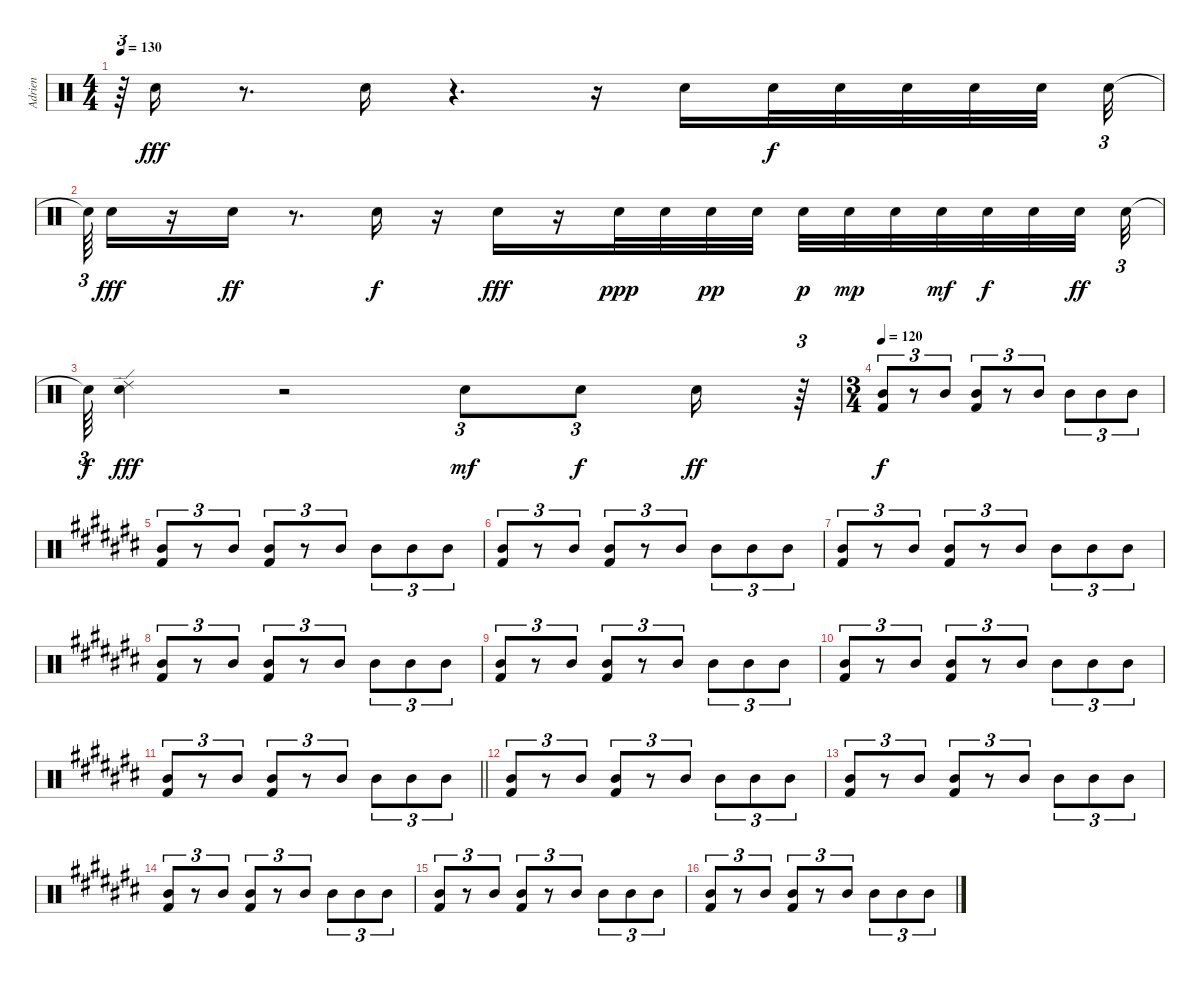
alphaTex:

\track ("Adrien" "Adrien") {instrument percussion}
\staff {score}
\articulation defaults
\ts (4 4)
\tempo 130
\clef neutral
\ks c
r.64{tu (3 2) dy ff} "Snare (hit) 2".16{dy fff} r.8{d} "Snare (hit) 2".16 r.4{d} r.16 "Snare (hit) 2".16 "Snare (hit) 2".32{dy f} "Snare (hit) 2".32 "Snare (hit) 2".32 "Snare (hit) 2".32 "Snare (hit) 2".32{beam splitsecondary} "Snare (hit) 2".32{tu (3 2)} |
"Snare (hit)"{t}.64{tu (3 2)} "Snare (hit) 2".16{dy fff} r.16 "Snare (hit) 2".16{dy ff} r.8{d} "Snare (hit) 2".16{dy f} r.16 "Snare (hit) 2".16{dy fff} r.16 "Snare (hit) 2".32{dy ppp} "Snare (hit) 2".32 "Snare (hit) 2".32{dy pp} "Snare (hit) 2".32 "Snare (hit) 2".32{dy p} "Snare (hit) 2".32{dy mp} "Snare (hit) 2".32 "Snare (hit) 2".32{dy mf} "Snare (hit) 2".32{dy f} "Snare (hit) 2".32 "Snare (hit) 2".32{dy ff beam splitsecondary} "Snare (hit) 2".32{tu (3 2)} |
"Snare (hit)"{t}.64{tu (3 2) dy f} ("Snare (hit) 2" "Ride (edge) 2").4{dy fff} r.2 "Snare (hit) 2".8{tu (3 2) dy mf} "Snare (hit) 2".8{tu (3 2) dy f} "Snare (hit) 2".16{dy ff} r.64{tu (3 2)} |
\ts (3 4)
\tempo 120
("Mid Tom (hit)" "Kick (hit) 2").8{tu (3 2) dy f} r.8{tu (3 2)} "Mid Tom (hit)".8{tu (3 2)} ("Mid Tom (hit)" "Kick (hit) 2").8{tu (3 2)} r.8{tu (3 2)} "Mid Tom (hit)".8{tu (3 2)} "Mid Tom (hit)".8{tu (3 2)} "Mid Tom (hit)".8{tu (3 2)} "Mid Tom (hit)".8{tu (3 2)} |
\ks c#
("Mid Tom (hit)" "Kick (hit) 2").8{tu (3 2)} r.8{tu (3 2)} "Mid Tom (hit)".8{tu (3 2)} ("Mid Tom (hit)" "Kick (hit) 2").8{tu (3 2)} r.8{tu (3 2)} "Mid Tom (hit)".8{tu (3 2)} "Mid Tom (hit)".8{tu (3 2)} "Mid Tom (hit)".8{tu (3 2)} "Mid Tom (hit)".8{tu (3 2)} |
("Mid Tom (hit)" "Kick (hit) 2").8{tu (3 2)} r.8{tu (3 2)} "Mid Tom (hit)".8{tu (3 2)} ("Mid Tom (hit)" "Kick (hit) 2").8{tu (3 2)} r.8{tu (3 2)} "Mid Tom (hit)".8{tu (3 2)} "Mid Tom (hit)".8{tu (3 2)} "Mid Tom (hit)".8{tu (3 2)} "Mid Tom (hit)".8{tu (3 2)} |
("Mid Tom (hit)" "Kick (hit) 2").8{tu (3 2)} r.8{tu (3 2)} "Mid Tom (hit)".8{tu (3 2)} ("Mid Tom (hit)" "Kick (hit) 2").8{tu (3 2)} r.8{tu (3 2)} "Mid Tom (hit)".8{tu (3 2)} "Mid Tom (hit)".8{tu (3 2)} "Mid Tom (hit)".8{tu (3 2)} "Mid Tom (hit)".8{tu (3 2)} |
("Mid Tom (hit)" "Kick (hit) 2").8{tu (3 2)} r.8{tu (3 2)} "Mid Tom (hit)".8{tu (3 2)} ("Mid Tom (hit)" "Kick (hit) 2").8{tu (3 2)} r.8{tu (3 2)} "Mid Tom (hit)".8{tu (3 2)} "Mid Tom (hit)".8{tu (3 2)} "Mid Tom (hit)".8{tu (3 2)} "Mid Tom (hit)".8{tu (3 2)} |
("Mid Tom (hit)" "Kick (hit) 2").8{tu (3 2)} r.8{tu (3 2)} "Mid Tom (hit)".8{tu (3 2)} ("Mid Tom (hit)" "Kick (hit) 2").8{tu (3 2)} r.8{tu (3 2)} "Mid Tom (hit)".8{tu (3 2)} "Mid Tom (hit)".8{tu (3 2)} "Mid Tom (hit)".8{tu (3 2)} "Mid Tom (hit)".8{tu (3 2)} |
("Mid Tom (hit)" "Kick (hit) 2").8{tu (3 2)} r.8{tu (3 2)} "Mid Tom (hit)".8{tu (3 2)} ("Mid Tom (hit)" "Kick (hit) 2").8{tu (3 2)} r.8{tu (3 2)} "Mid Tom (hit)".8{tu (3 2)} "Mid Tom (hit)".8{tu (3 2)} "Mid Tom (hit)".8{tu (3 2)} "Mid Tom (hit)".8{tu (3 2)} |
\barLineRight lightlight
("Mid Tom (hit)" "Kick (hit) 2").8{tu (3 2)} r.8{tu (3 2)} "Mid Tom (hit)".8{tu (3 2)} ("Mid Tom (hit)" "Kick (hit) 2").8{tu (3 2)} r.8{tu (3 2)} "Mid Tom (hit)".8{tu (3 2)} "Mid Tom (hit)".8{tu (3 2)} "Mid Tom (hit)".8{tu (3 2)} "Mid Tom (hit)".8{tu (3 2)} |
("Mid Tom (hit)" "Kick (hit) 2").8{tu (3 2)} r.8{tu (3 2)} "Mid Tom (hit)".8{tu (3 2)} ("Mid Tom (hit)" "Kick (hit) 2").8{tu (3 2)} r.8{tu (3 2)} "Mid Tom (hit)".8{tu (3 2)} "Mid Tom (hit)".8{tu (3 2)} "Mid Tom (hit)".8{tu (3 2)} "Mid Tom (hit)".8{tu (3 2)} |
("Mid Tom (hit)" "Kick (hit) 2").8{tu (3 2)} r.8{tu (3 2)} "Mid Tom (hit)".8{tu (3 2)} ("Mid Tom (hit)" "Kick (hit) 2").8{tu (3 2)} r.8{tu (3 2)} "Mid Tom (hit)".8{tu (3 2)} "Mid Tom (hit)".8{tu (3 2)} "Mid Tom (hit)".8{tu (3 2)} "Mid Tom (hit)".8{tu (3 2)} |
("Mid Tom (hit)" "Kick (hit) 2").8{tu (3 2)} r.8{tu (3 2)} "Mid Tom (hit)".8{tu (3 2)} ("Mid Tom (hit)" "Kick (hit) 2").8{tu (3 2)} r.8{tu (3 2)} "Mid Tom (hit)".8{tu (3 2)} "Mid Tom (hit)".8{tu (3 2)} "Mid Tom (hit)".8{tu (3 2)} "Mid Tom (hit)".8{tu (3 2)} |
("Mid Tom (hit)" "Kick (hit) 2").8{tu (3 2)} r.8{tu (3 2)} "Mid Tom (hit)".8{tu (3 2)} ("Mid Tom (hit)" "Kick (hit) 2").8{tu (3 2)} r.8{tu (3 2)} "Mid Tom (hit)".8{tu (3 2)} "Mid Tom (hit)".8{tu (3 2)} "Mid Tom (hit)".8{tu (3 2)} "Mid Tom (hit)".8{tu (3 2)} |
("Mid Tom (hit)" "Kick (hit) 2").8{tu (3 2)} r.8{tu (3 2)} "Mid Tom (hit)".8{tu (3 2)} ("Mid Tom (hit)" "Kick (hit) 2").8{tu (3 2)} r.8{tu (3 2)} "Mid Tom (hit)".8{tu (3 2)} "Mid Tom (hit)".8{tu (3 2)} "Mid Tom (hit)".8{tu (3 2)} "Mid Tom (hit)".8{tu (3 2)}
